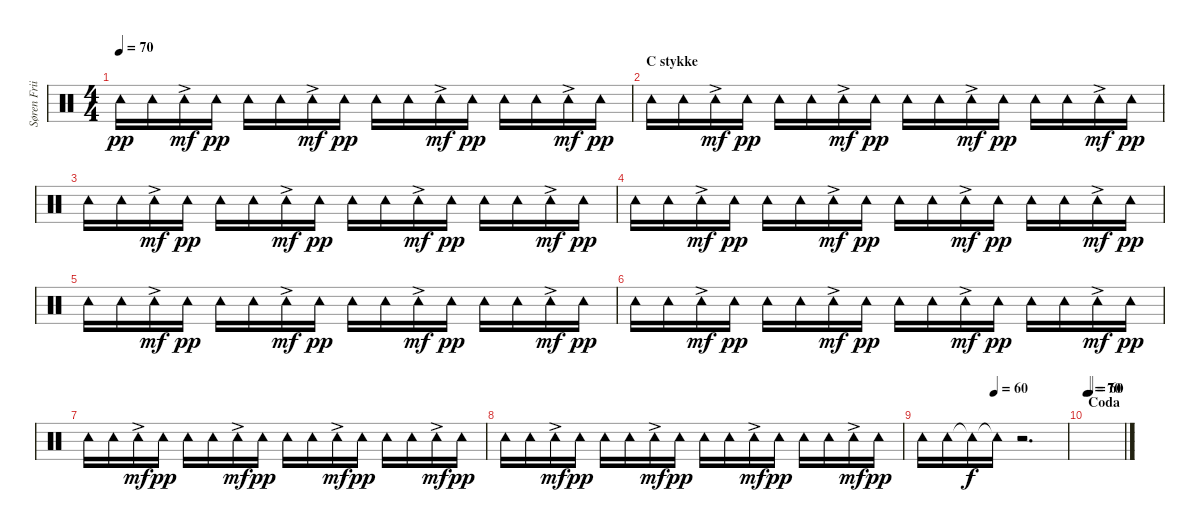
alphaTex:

\track ("Søren Friis (Percussion)" "Søren Frii") {instrument percussion}
\staff {score}
\articulation defaults
\ts (4 4)
\tempo 70
\clef neutral
\ks c "Tambourine (hit)".16{dy pp} "Tambourine (hit)".16 "Tambourine (hit)"{ac}.16{dy mf} "Tambourine (hit)".16{dy pp} "Tambourine (hit)".16 "Tambourine (hit)".16 "Tambourine (hit)"{ac}.16{dy mf} "Tambourine (hit)".16{dy pp} "Tambourine (hit)".16 "Tambourine (hit)".16 "Tambourine (hit)"{ac}.16{dy mf} "Tambourine (hit)".16{dy pp} "Tambourine (hit)".16 "Tambourine (hit)".16 "Tambourine (hit)"{ac}.16{dy mf} "Tambourine (hit)".16{dy pp}
|
\section ("" "C stykke")
"Tambourine (hit)".16 "Tambourine (hit)".16 "Tambourine (hit)"{ac}.16{dy mf} "Tambourine (hit)".16{dy pp} "Tambourine (hit)".16 "Tambourine (hit)".16 "Tambourine (hit)"{ac}.16{dy mf} "Tambourine (hit)".16{dy pp} "Tambourine (hit)".16 "Tambourine (hit)".16 "Tambourine (hit)"{ac}.16{dy mf} "Tambourine (hit)".16{dy pp} "Tambourine (hit)".16 "Tambourine (hit)".16 "Tambourine (hit)"{ac}.16{dy mf} "Tambourine (hit)".16{dy pp} |
"Tambourine (hit)".16 "Tambourine (hit)".16 "Tambourine (hit)"{ac}.16{dy mf} "Tambourine (hit)".16{dy pp} "Tambourine (hit)".16 "Tambourine (hit)".16 "Tambourine (hit)"{ac}.16{dy mf} "Tambourine (hit)".16{dy pp} "Tambourine (hit)".16 "Tambourine (hit)".16 "Tambourine (hit)"{ac}.16{dy mf} "Tambourine (hit)".16{dy pp} "Tambourine (hit)".16 "Tambourine (hit)".16 "Tambourine (hit)"{ac}.16{dy mf} "Tambourine (hit)".16{dy pp} |
"Tambourine (hit)".16 "Tambourine (hit)".16 "Tambourine (hit)"{ac}.16{dy mf} "Tambourine (hit)".16{dy pp} "Tambourine (hit)".16 "Tambourine (hit)".16 "Tambourine (hit)"{ac}.16{dy mf} "Tambourine (hit)".16{dy pp} "Tambourine (hit)".16 "Tambourine (hit)".16 "Tambourine (hit)"{ac}.16{dy mf} "Tambourine (hit)".16{dy pp} "Tambourine (hit)".16 "Tambourine (hit)".16 "Tambourine (hit)"{ac}.16{dy mf} "Tambourine (hit)".16{dy pp} |
"Tambourine (hit)".16 "Tambourine (hit)".16 "Tambourine (hit)"{ac}.16{dy mf} "Tambourine (hit)".16{dy pp} "Tambourine (hit)".16 "Tambourine (hit)".16 "Tambourine (hit)"{ac}.16{dy mf} "Tambourine (hit)".16{dy pp} "Tambourine (hit)".16 "Tambourine (hit)".16 "Tambourine (hit)"{ac}.16{dy mf} "Tambourine (hit)".16{dy pp} "Tambourine (hit)".16 "Tambourine (hit)".16 "Tambourine (hit)"{ac}.16{dy mf} "Tambourine (hit)".16{dy pp} |
"Tambourine (hit)".16 "Tambourine (hit)".16 "Tambourine (hit)"{ac}.16{dy mf} "Tambourine (hit)".16{dy pp} "Tambourine (hit)".16 "Tambourine (hit)".16 "Tambourine (hit)"{ac}.16{dy mf} "Tambourine (hit)".16{dy pp} "Tambourine (hit)".16 "Tambourine (hit)".16 "Tambourine (hit)"{ac}.16{dy mf} "Tambourine (hit)".16{dy pp} "Tambourine (hit)".16 "Tambourine (hit)".16 "Tambourine (hit)"{ac}.16{dy mf} "Tambourine (hit)".16{dy pp} |
"Tambourine (hit)".16 "Tambourine (hit)".16 "Tambourine (hit)"{ac}.16{dy mf} "Tambourine (hit)".16{dy pp} "Tambourine (hit)".16 "Tambourine (hit)".16 "Tambourine (hit)"{ac}.16{dy mf} "Tambourine (hit)".16{dy pp} "Tambourine (hit)".16 "Tambourine (hit)".16 "Tambourine (hit)"{ac}.16{dy mf} "Tambourine (hit)".16{dy pp} "Tambourine (hit)".16 "Tambourine (hit)".16 "Tambourine (hit)"{ac}.16{dy mf} "Tambourine (hit)".16{dy pp} |
"Tambourine (hit)".16 "Tambourine (hit)".16 "Tambourine (hit)"{ac}.16{dy mf} "Tambourine (hit)".16{dy pp} "Tambourine (hit)".16 "Tambourine (hit)".16 "Tambourine (hit)"{ac}.16{dy mf} "Tambourine (hit)".16{dy pp} "Tambourine (hit)".16 "Tambourine (hit)".16 "Tambourine (hit)"{ac}.16{dy mf} "Tambourine (hit)".16{dy pp} "Tambourine (hit)".16{volume 8} "Tambourine (hit)".16 "Tambourine (hit)"{ac}.16{dy mf} "Tambourine (hit)".16{dy pp} |
\tempo (60 0.5)
"Tambourine (hit)".16 "Tambourine (hit)".16 "Tambourine (hit)"{t}.16{dy f} "Tambourine (hit)"{t}.16 r.2{d} |
\section ("" "Coda")
\tempo 70
\tempo (60 0.0625)
